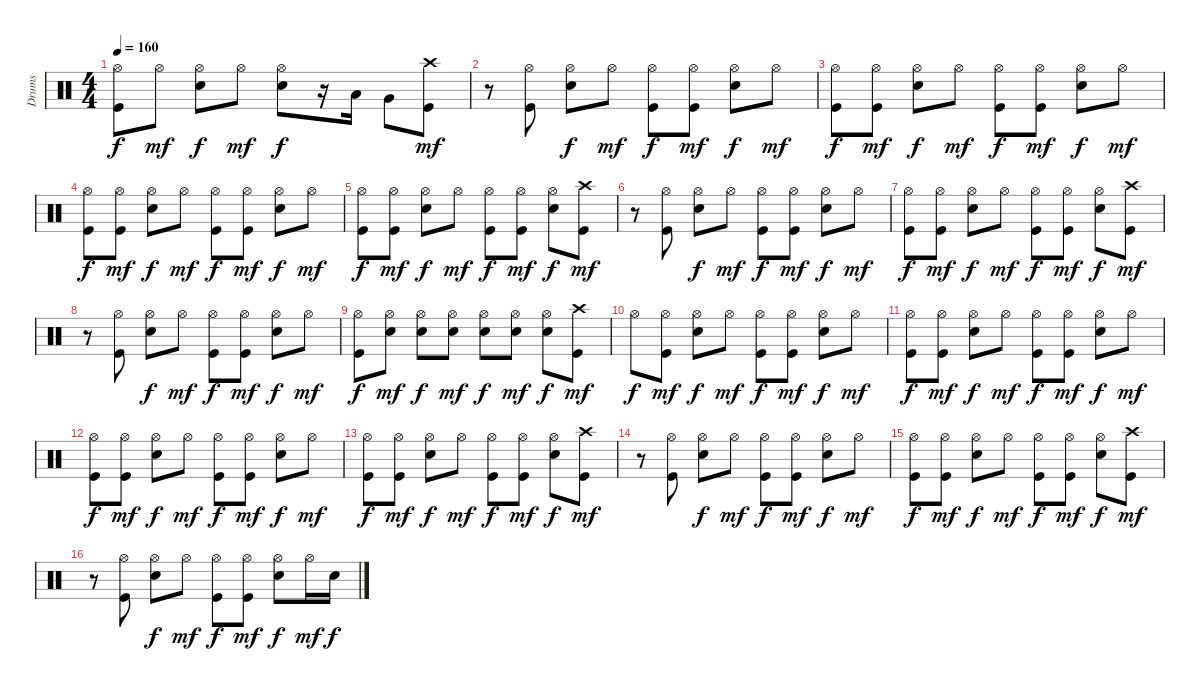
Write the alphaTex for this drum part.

\track ("Drums" "Drums") {instrument percussion}
\staff {score}
\articulation defaults
\ts (4 4)
\tempo 160
\clef neutral
\ks c
("Hi-Hat (open)" "Kick (hit)").8{dy f} "Hi-Hat (open)".8{dy mf} ("Hi-Hat (open)" "Snare (hit) 2").8{dy f} "Hi-Hat (open)".8{dy mf} ("Hi-Hat (open)" "Snare (hit) 2").8{dy f} r.16 "Low Tom (hit)".16 "Very Low Tom (hit)".8 ("Crash high (hit)" "Kick (hit)").8{dy mf} |
r.8 ("Hi-Hat (open)" "Kick (hit)").8 ("Hi-Hat (open)" "Snare (hit) 2").8{dy f} "Hi-Hat (open)".8{dy mf} ("Hi-Hat (open)" "Kick (hit)").8{dy f} ("Hi-Hat (open)" "Kick (hit)").8{dy mf} ("Hi-Hat (open)" "Snare (hit) 2").8{dy f} "Hi-Hat (open)".8{dy mf} |
("Hi-Hat (open)" "Kick (hit)").8{dy f} ("Hi-Hat (open)" "Kick (hit)").8{dy mf} ("Hi-Hat (open)" "Snare (hit) 2").8{dy f} "Hi-Hat (open)".8{dy mf} ("Hi-Hat (open)" "Kick (hit)").8{dy f} ("Hi-Hat (open)" "Kick (hit)").8{dy mf} ("Hi-Hat (open)" "Snare (hit) 2").8{dy f} "Hi-Hat (open)".8{dy mf} |
("Hi-Hat (open)" "Kick (hit)").8{dy f} ("Hi-Hat (open)" "Kick (hit)").8{dy mf} ("Hi-Hat (open)" "Snare (hit) 2").8{dy f} "Hi-Hat (open)".8{dy mf} ("Hi-Hat (open)" "Kick (hit)").8{dy f} ("Hi-Hat (open)" "Kick (hit)").8{dy mf} ("Hi-Hat (open)" "Snare (hit) 2").8{dy f} "Hi-Hat (open)".8{dy mf} |
("Hi-Hat (open)" "Kick (hit)").8{dy f} ("Hi-Hat (open)" "Kick (hit)").8{dy mf} ("Hi-Hat (open)" "Snare (hit) 2").8{dy f} "Hi-Hat (open)".8{dy mf} ("Hi-Hat (open)" "Kick (hit)").8{dy f} ("Hi-Hat (open)" "Kick (hit)").8{dy mf} ("Hi-Hat (open)" "Snare (hit) 2").8{dy f} ("Crash high (hit)" "Kick (hit)").8{dy mf} |
r.8 ("Hi-Hat (open)" "Kick (hit)").8 ("Hi-Hat (open)" "Snare (hit) 2").8{dy f} "Hi-Hat (open)".8{dy mf} ("Hi-Hat (open)" "Kick (hit)").8{dy f} ("Hi-Hat (open)" "Kick (hit)").8{dy mf} ("Hi-Hat (open)" "Snare (hit) 2").8{dy f} "Hi-Hat (open)".8{dy mf} |
("Hi-Hat (open)" "Kick (hit)").8{dy f} ("Hi-Hat (open)" "Kick (hit)").8{dy mf} ("Hi-Hat (open)" "Snare (hit) 2").8{dy f} "Hi-Hat (open)".8{dy mf} ("Hi-Hat (open)" "Kick (hit)").8{dy f} ("Hi-Hat (open)" "Kick (hit)").8{dy mf} ("Hi-Hat (open)" "Snare (hit) 2").8{dy f} ("Crash high (hit)" "Kick (hit)").8{dy mf} |
r.8 ("Hi-Hat (open)" "Kick (hit)").8 ("Hi-Hat (open)" "Snare (hit) 2").8{dy f} "Hi-Hat (open)".8{dy mf} ("Hi-Hat (open)" "Kick (hit)").8{dy f} ("Hi-Hat (open)" "Kick (hit)").8{dy mf} ("Hi-Hat (open)" "Snare (hit) 2").8{dy f} "Hi-Hat (open)".8{dy mf} |
("Hi-Hat (open)" "Kick (hit)").8{dy f} ("Hi-Hat (open)" "Snare (hit) 2").8{dy mf} ("Hi-Hat (open)" "Snare (hit) 2").8{dy f} ("Hi-Hat (open)" "Snare (hit) 2").8{dy mf} ("Hi-Hat (open)" "Snare (hit) 2").8{dy f} ("Hi-Hat (open)" "Snare (hit) 2").8{dy mf} ("Hi-Hat (open)" "Snare (hit) 2").8{dy f} ("Crash high (hit)" "Kick (hit)").8{dy mf} |
"Hi-Hat (open)".8{dy f} ("Hi-Hat (open)" "Kick (hit)").8{dy mf} ("Hi-Hat (open)" "Snare (hit) 2").8{dy f} "Hi-Hat (open)".8{dy mf} ("Hi-Hat (open)" "Kick (hit)").8{dy f} ("Hi-Hat (open)" "Kick (hit)").8{dy mf} ("Hi-Hat (open)" "Snare (hit) 2").8{dy f} "Hi-Hat (open)".8{dy mf} |
("Hi-Hat (open)" "Kick (hit)").8{dy f} ("Hi-Hat (open)" "Kick (hit)").8{dy mf} ("Hi-Hat (open)" "Snare (hit) 2").8{dy f} "Hi-Hat (open)".8{dy mf} ("Hi-Hat (open)" "Kick (hit)").8{dy f} ("Hi-Hat (open)" "Kick (hit)").8{dy mf} ("Hi-Hat (open)" "Snare (hit) 2").8{dy f} "Hi-Hat (open)".8{dy mf} |
("Hi-Hat (open)" "Kick (hit)").8{dy f} ("Hi-Hat (open)" "Kick (hit)").8{dy mf} ("Hi-Hat (open)" "Snare (hit) 2").8{dy f} "Hi-Hat (open)".8{dy mf} ("Hi-Hat (open)" "Kick (hit)").8{dy f} ("Hi-Hat (open)" "Kick (hit)").8{dy mf} ("Hi-Hat (open)" "Snare (hit) 2").8{dy f} "Hi-Hat (open)".8{dy mf} |
("Hi-Hat (open)" "Kick (hit)").8{dy f} ("Hi-Hat (open)" "Kick (hit)").8{dy mf} ("Hi-Hat (open)" "Snare (hit) 2").8{dy f} "Hi-Hat (open)".8{dy mf} ("Hi-Hat (open)" "Kick (hit)").8{dy f} ("Hi-Hat (open)" "Kick (hit)").8{dy mf} ("Hi-Hat (open)" "Snare (hit) 2").8{dy f} ("Crash high (hit)" "Kick (hit)").8{dy mf} |
r.8 ("Hi-Hat (open)" "Kick (hit)").8 ("Hi-Hat (open)" "Snare (hit) 2").8{dy f} "Hi-Hat (open)".8{dy mf} ("Hi-Hat (open)" "Kick (hit)").8{dy f} ("Hi-Hat (open)" "Kick (hit)").8{dy mf} ("Hi-Hat (open)" "Snare (hit) 2").8{dy f} "Hi-Hat (open)".8{dy mf} |
("Hi-Hat (open)" "Kick (hit)").8{dy f} ("Hi-Hat (open)" "Kick (hit)").8{dy mf} ("Hi-Hat (open)" "Snare (hit) 2").8{dy f} "Hi-Hat (open)".8{dy mf} ("Hi-Hat (open)" "Kick (hit)").8{dy f} ("Hi-Hat (open)" "Kick (hit)").8{dy mf} ("Hi-Hat (open)" "Snare (hit) 2").8{dy f} ("Crash high (hit)" "Kick (hit)").8{dy mf} |
r.8 ("Hi-Hat (open)" "Kick (hit)").8 ("Hi-Hat (open)" "Snare (hit) 2").8{dy f} "Hi-Hat (open)".8{dy mf} ("Hi-Hat (open)" "Kick (hit)").8{dy f} ("Hi-Hat (open)" "Kick (hit)").8{dy mf} ("Hi-Hat (open)" "Snare (hit) 2").8{dy f} "Hi-Hat (open)".16{dy mf} "Snare (hit) 2".16{dy f}
